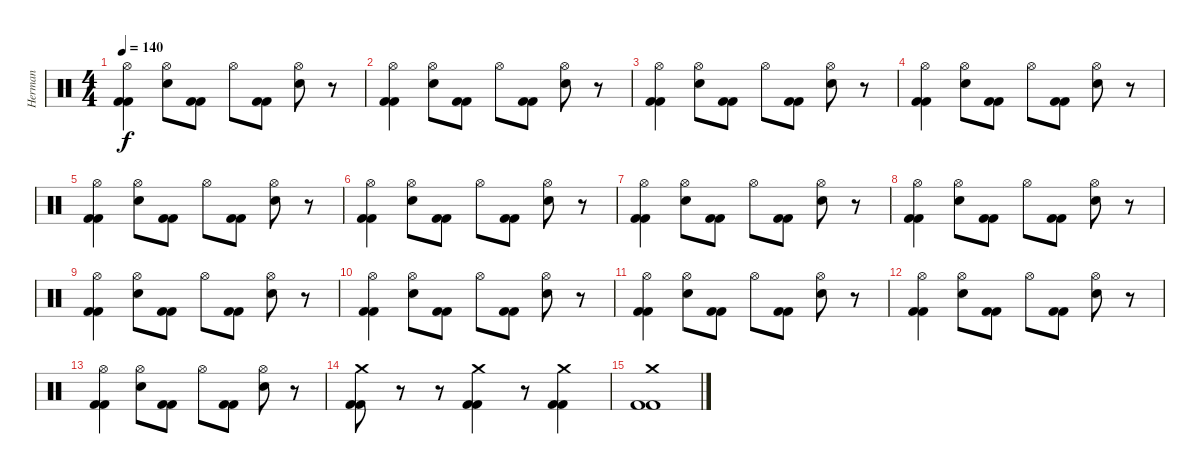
\track ("Herman" "Herman") {instrument percussion}
\staff {score}
\articulation defaults
\ts (4 4)
\tempo 140
\clef neutral
\ks c
("Hi-Hat (open)" "Kick (hit) 2" "Kick (hit) 2").4{dy f} ("Electric Snare (hit)" "Hi-Hat (open)").8 ("Kick (hit) 2" "Kick (hit) 2").8 "Hi-Hat (open)".8 ("Kick (hit) 2" "Kick (hit) 2").8 ("Hi-Hat (open)" "Electric Snare (hit)").8 r.8 |
("Hi-Hat (open)" "Kick (hit) 2" "Kick (hit) 2").4 ("Electric Snare (hit)" "Hi-Hat (open)").8 ("Kick (hit) 2" "Kick (hit) 2").8 "Hi-Hat (open)".8 ("Kick (hit) 2" "Kick (hit) 2").8 ("Hi-Hat (open)" "Electric Snare (hit)").8 r.8 |
("Hi-Hat (open)" "Kick (hit) 2" "Kick (hit) 2").4 ("Electric Snare (hit)" "Hi-Hat (open)").8 ("Kick (hit) 2" "Kick (hit) 2").8 "Hi-Hat (open)".8 ("Kick (hit) 2" "Kick (hit) 2").8 ("Hi-Hat (open)" "Electric Snare (hit)").8 r.8 |
("Hi-Hat (open)" "Kick (hit) 2" "Kick (hit) 2").4 ("Electric Snare (hit)" "Hi-Hat (open)").8 ("Kick (hit) 2" "Kick (hit) 2").8 "Hi-Hat (open)".8 ("Kick (hit) 2" "Kick (hit) 2").8 ("Hi-Hat (open)" "Electric Snare (hit)").8 r.8 |
("Hi-Hat (open)" "Kick (hit) 2" "Kick (hit) 2").4 ("Electric Snare (hit)" "Hi-Hat (open)").8 ("Kick (hit) 2" "Kick (hit) 2").8 "Hi-Hat (open)".8 ("Kick (hit) 2" "Kick (hit) 2").8 ("Hi-Hat (open)" "Electric Snare (hit)").8 r.8 |
("Hi-Hat (open)" "Kick (hit) 2" "Kick (hit) 2").4 ("Electric Snare (hit)" "Hi-Hat (open)").8 ("Kick (hit) 2" "Kick (hit) 2").8 "Hi-Hat (open)".8 ("Kick (hit) 2" "Kick (hit) 2").8 ("Hi-Hat (open)" "Electric Snare (hit)").8 r.8 |
("Hi-Hat (open)" "Kick (hit) 2" "Kick (hit) 2").4 ("Electric Snare (hit)" "Hi-Hat (open)").8 ("Kick (hit) 2" "Kick (hit) 2").8 "Hi-Hat (open)".8 ("Kick (hit) 2" "Kick (hit) 2").8 ("Hi-Hat (open)" "Electric Snare (hit)").8 r.8 |
("Hi-Hat (open)" "Kick (hit) 2" "Kick (hit) 2").4 ("Electric Snare (hit)" "Hi-Hat (open)").8 ("Kick (hit) 2" "Kick (hit) 2").8 "Hi-Hat (open)".8 ("Kick (hit) 2" "Kick (hit) 2").8 ("Hi-Hat (open)" "Electric Snare (hit)").8 r.8 |
("Hi-Hat (open)" "Kick (hit) 2" "Kick (hit) 2").4 ("Electric Snare (hit)" "Hi-Hat (open)").8 ("Kick (hit) 2" "Kick (hit) 2").8 "Hi-Hat (open)".8 ("Kick (hit) 2" "Kick (hit) 2").8 ("Hi-Hat (open)" "Electric Snare (hit)").8 r.8 |
("Hi-Hat (open)" "Kick (hit) 2" "Kick (hit) 2").4 ("Electric Snare (hit)" "Hi-Hat (open)").8 ("Kick (hit) 2" "Kick (hit) 2").8 "Hi-Hat (open)".8 ("Kick (hit) 2" "Kick (hit) 2").8 ("Hi-Hat (open)" "Electric Snare (hit)").8 r.8 |
("Hi-Hat (open)" "Kick (hit) 2" "Kick (hit) 2").4 ("Electric Snare (hit)" "Hi-Hat (open)").8 ("Kick (hit) 2" "Kick (hit) 2").8 "Hi-Hat (open)".8 ("Kick (hit) 2" "Kick (hit) 2").8 ("Hi-Hat (open)" "Electric Snare (hit)").8 r.8 |
("Hi-Hat (open)" "Kick (hit) 2" "Kick (hit) 2").4 ("Electric Snare (hit)" "Hi-Hat (open)").8 ("Kick (hit) 2" "Kick (hit) 2").8 "Hi-Hat (open)".8 ("Kick (hit) 2" "Kick (hit) 2").8 ("Hi-Hat (open)" "Electric Snare (hit)").8 r.8 |
("Hi-Hat (open)" "Kick (hit) 2" "Kick (hit) 2").4 ("Electric Snare (hit)" "Hi-Hat (open)").8 ("Kick (hit) 2" "Kick (hit) 2").8 "Hi-Hat (open)".8 ("Kick (hit) 2" "Kick (hit) 2").8 ("Hi-Hat (open)" "Electric Snare (hit)").8 r.8 |
("Crash medium (hit)" "Kick (hit) 2" "Kick (hit) 2").8 r.8 r.8 ("Crash medium (hit)" "Kick (hit) 2" "Kick (hit) 2").4 r.8 ("Kick (hit) 2" "Kick (hit) 2" "Crash medium (hit)").4 |
("Crash medium (hit)" "Kick (hit) 2" "Kick (hit) 2").1
